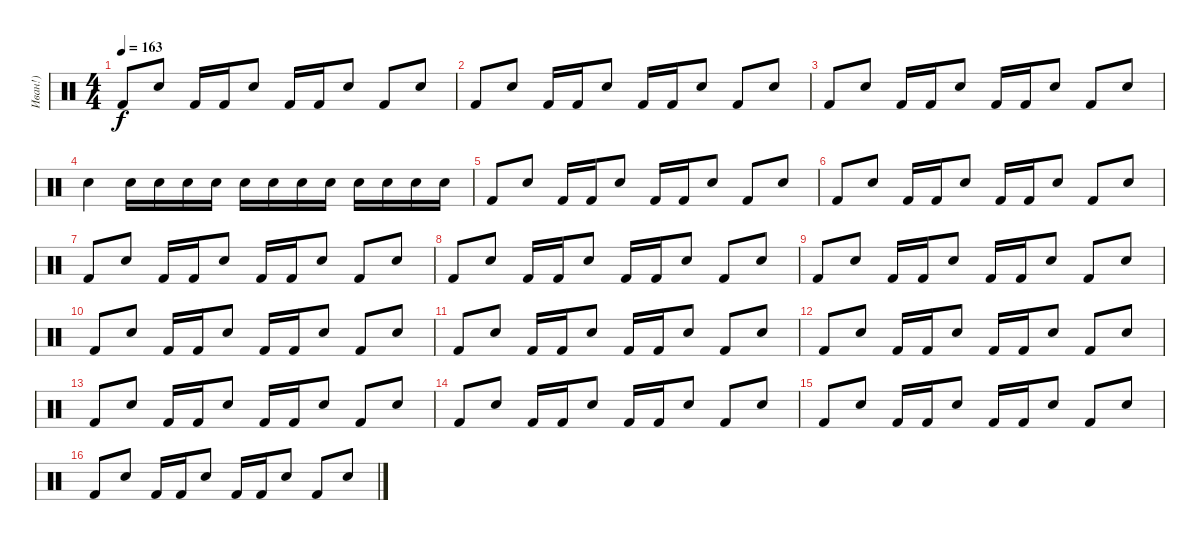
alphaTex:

\track ("Иван!)" "Иван!)") {instrument percussion}
\staff {score}
\articulation defaults
\ts (4 4)
\tempo 163
\clef neutral
\ks c "Kick (hit) 2".8{dy f} "Electric Snare (hit)".8 "Kick (hit) 2".16 "Kick (hit) 2".16 "Electric Snare (hit)".8 "Kick (hit) 2".16 "Kick (hit) 2".16 "Electric Snare (hit)".8 "Kick (hit) 2".8 "Electric Snare (hit)".8
|
"Kick (hit) 2".8 "Electric Snare (hit)".8 "Kick (hit) 2".16 "Kick (hit) 2".16 "Electric Snare (hit)".8 "Kick (hit) 2".16 "Kick (hit) 2".16 "Electric Snare (hit)".8 "Kick (hit) 2".8 "Electric Snare (hit)".8 |
"Kick (hit) 2".8 "Electric Snare (hit)".8 "Kick (hit) 2".16 "Kick (hit) 2".16 "Electric Snare (hit)".8 "Kick (hit) 2".16 "Kick (hit) 2".16 "Electric Snare (hit)".8 "Kick (hit) 2".8 "Electric Snare (hit)".8 |
"Electric Snare (hit)".4 "Electric Snare (hit)".16 "Electric Snare (hit)".16 "Electric Snare (hit)".16 "Electric Snare (hit)".16 "Electric Snare (hit)".16 "Electric Snare (hit)".16 "Electric Snare (hit)".16 "Electric Snare (hit)".16 "Electric Snare (hit)".16 "Electric Snare (hit)".16 "Electric Snare (hit)".16 "Electric Snare (hit)".16 |
"Kick (hit) 2".8 "Electric Snare (hit)".8 "Kick (hit) 2".16 "Kick (hit) 2".16 "Electric Snare (hit)".8 "Kick (hit) 2".16 "Kick (hit) 2".16 "Electric Snare (hit)".8 "Kick (hit) 2".8 "Electric Snare (hit)".8 |
"Kick (hit) 2".8 "Electric Snare (hit)".8 "Kick (hit) 2".16 "Kick (hit) 2".16 "Electric Snare (hit)".8 "Kick (hit) 2".16 "Kick (hit) 2".16 "Electric Snare (hit)".8 "Kick (hit) 2".8 "Electric Snare (hit)".8 |
"Kick (hit) 2".8 "Electric Snare (hit)".8 "Kick (hit) 2".16 "Kick (hit) 2".16 "Electric Snare (hit)".8 "Kick (hit) 2".16 "Kick (hit) 2".16 "Electric Snare (hit)".8 "Kick (hit) 2".8 "Electric Snare (hit)".8 |
"Kick (hit) 2".8 "Electric Snare (hit)".8 "Kick (hit) 2".16 "Kick (hit) 2".16 "Electric Snare (hit)".8 "Kick (hit) 2".16 "Kick (hit) 2".16 "Electric Snare (hit)".8 "Kick (hit) 2".8 "Electric Snare (hit)".8 |
"Kick (hit) 2".8 "Electric Snare (hit)".8 "Kick (hit) 2".16 "Kick (hit) 2".16 "Electric Snare (hit)".8 "Kick (hit) 2".16 "Kick (hit) 2".16 "Electric Snare (hit)".8 "Kick (hit) 2".8 "Electric Snare (hit)".8 |
"Kick (hit) 2".8 "Electric Snare (hit)".8 "Kick (hit) 2".16 "Kick (hit) 2".16 "Electric Snare (hit)".8 "Kick (hit) 2".16 "Kick (hit) 2".16 "Electric Snare (hit)".8 "Kick (hit) 2".8 "Electric Snare (hit)".8 |
"Kick (hit) 2".8 "Electric Snare (hit)".8 "Kick (hit) 2".16 "Kick (hit) 2".16 "Electric Snare (hit)".8 "Kick (hit) 2".16 "Kick (hit) 2".16 "Electric Snare (hit)".8 "Kick (hit) 2".8 "Electric Snare (hit)".8 |
"Kick (hit) 2".8 "Electric Snare (hit)".8 "Kick (hit) 2".16 "Kick (hit) 2".16 "Electric Snare (hit)".8 "Kick (hit) 2".16 "Kick (hit) 2".16 "Electric Snare (hit)".8 "Kick (hit) 2".8 "Electric Snare (hit)".8 |
"Kick (hit) 2".8 "Electric Snare (hit)".8 "Kick (hit) 2".16 "Kick (hit) 2".16 "Electric Snare (hit)".8 "Kick (hit) 2".16 "Kick (hit) 2".16 "Electric Snare (hit)".8 "Kick (hit) 2".8 "Electric Snare (hit)".8 |
"Kick (hit) 2".8 "Electric Snare (hit)".8 "Kick (hit) 2".16 "Kick (hit) 2".16 "Electric Snare (hit)".8 "Kick (hit) 2".16 "Kick (hit) 2".16 "Electric Snare (hit)".8 "Kick (hit) 2".8 "Electric Snare (hit)".8 |
"Kick (hit) 2".8 "Electric Snare (hit)".8 "Kick (hit) 2".16 "Kick (hit) 2".16 "Electric Snare (hit)".8 "Kick (hit) 2".16 "Kick (hit) 2".16 "Electric Snare (hit)".8 "Kick (hit) 2".8 "Electric Snare (hit)".8 |
"Kick (hit) 2".8 "Electric Snare (hit)".8 "Kick (hit) 2".16 "Kick (hit) 2".16 "Electric Snare (hit)".8 "Kick (hit) 2".16 "Kick (hit) 2".16 "Electric Snare (hit)".8 "Kick (hit) 2".8 "Electric Snare (hit)".8
